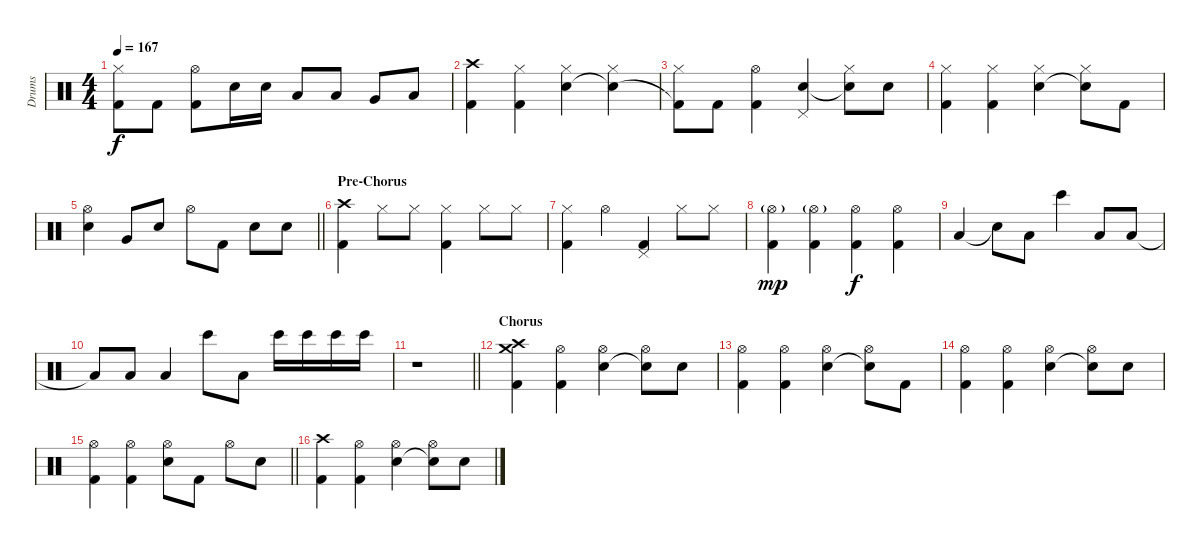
\track ("Drums" "Drums") {instrument percussion}
\staff {score}
\articulation defaults
\ts (4 4)
\tempo 167
\clef neutral
\ks c
("Kick (hit) 2"{t} "Hi-Hat (closed)").8{dy f} "Kick (hit) 2".8 ("Kick (hit) 2" "Hi-Hat (open)").8 "Electric Snare (hit)".16 "Electric Snare (hit)".16 "Low Tom (hit)".8 "Low Tom (hit)".8 "Very Low Tom (hit)".8 "Low Floor Tom (hit)".8 |
("Kick (hit) 2" "Crash high (hit)").4 ("Kick (hit) 2" "Hi-Hat (closed)").4 ("Electric Snare (hit)" "Hi-Hat (closed)").4 ("Snare (hit)"{t} "Hi-Hat (closed)").4 |
("Kick (hit) 2"{t} "Hi-Hat (closed)").8 "Kick (hit) 2".8 ("Kick (hit) 2" "Hi-Hat (open)").4 ("Electric Snare (hit)" "Pedal Hi-Hat (hit)").4 ("Snare (hit)"{t} "Hi-Hat (closed)").8 "Electric Snare (hit)".8 |
("Kick (hit) 2" "Hi-Hat (closed)").4 ("Kick (hit) 2" "Hi-Hat (closed)").4 ("Electric Snare (hit)" "Hi-Hat (closed)").4 ("Snare (hit)"{t} "Hi-Hat (closed)").8 "Kick (hit) 2".8 |
\barLineRight lightlight
("Electric Snare (hit)" "Hi-Hat (open)").4 "Very Low Tom (hit)".8 "Electric Snare (hit)".8 "Hi-Hat (open)".8 "Kick (hit) 2".8 "Electric Snare (hit)".8 "Electric Snare (hit)".8 |
\section ("" "Pre-Chorus")
("Kick (hit) 2" "Crash high (hit)").4 "Hi-Hat (closed)".8 "Hi-Hat (closed)".8 ("Kick (hit) 2" "Hi-Hat (closed)").4 "Hi-Hat (closed)".8 "Hi-Hat (closed)".8 |
("Kick (hit) 2" "Hi-Hat (closed)").4 "Hi-Hat (open)".4 ("Kick (hit) 2" "Pedal Hi-Hat (hit)").4 "Hi-Hat (closed)".8 "Hi-Hat (closed)".8 |
("Kick (hit) 2" "Hi-Hat (open)"{g}).4{dy mp} ("Kick (hit) 2" "Hi-Hat (open)"{g}).4 ("Kick (hit) 2" "Hi-Hat (open)").4{dy f} ("Kick (hit) 2" "Hi-Hat (open)").4 |
"Low Floor Tom (hit)".4 "Snare (hit)"{t}.8 "Low Floor Tom (hit)".8 "Bongo High (hit)".4 "Low Floor Tom (hit)".8 "Low Floor Tom (hit)".8 |
"Low Floor Tom (hit)"{t}.8 "Low Floor Tom (hit)".8 "Low Floor Tom (hit)".4 "Bongo High (hit)".8 "Low Floor Tom (hit)".8 "Bongo High (hit)".16 "Bongo High (hit)".16 "Bongo High (hit)".16 "Bongo High (hit)".16 |
\barLineRight lightlight
r.1 |
\section ("" "Chorus")
("Kick (hit) 2" "Crash high (hit)" "Crash medium (hit)").4 ("Kick (hit) 2" "Hi-Hat (open)").4 ("Electric Snare (hit)" "Hi-Hat (open)").4 ("Snare (hit)"{t} "Hi-Hat (open)").8 "Electric Snare (hit)".8 |
("Kick (hit) 2" "Hi-Hat (open)").4 ("Kick (hit) 2" "Hi-Hat (open)").4 ("Electric Snare (hit)" "Hi-Hat (open)").4 ("Snare (hit)"{t} "Hi-Hat (open)").8 "Kick (hit) 2".8 |
("Kick (hit) 2" "Hi-Hat (open)").4 ("Kick (hit) 2" "Hi-Hat (open)").4 ("Electric Snare (hit)" "Hi-Hat (open)").4 ("Snare (hit)"{t} "Hi-Hat (open)").8 "Electric Snare (hit)".8 |
\barLineRight lightlight
("Kick (hit) 2" "Hi-Hat (open)").4 ("Kick (hit) 2" "Hi-Hat (open)").4 ("Electric Snare (hit)" "Hi-Hat (open)").8 "Kick (hit) 2".8 "Hi-Hat (open)".8 "Electric Snare (hit)".8 |
("Kick (hit) 2" "Crash high (hit)").4 ("Kick (hit) 2" "Hi-Hat (open)").4 ("Electric Snare (hit)" "Hi-Hat (open)").4 ("Snare (hit)"{t} "Hi-Hat (open)").8 "Electric Snare (hit)".8
